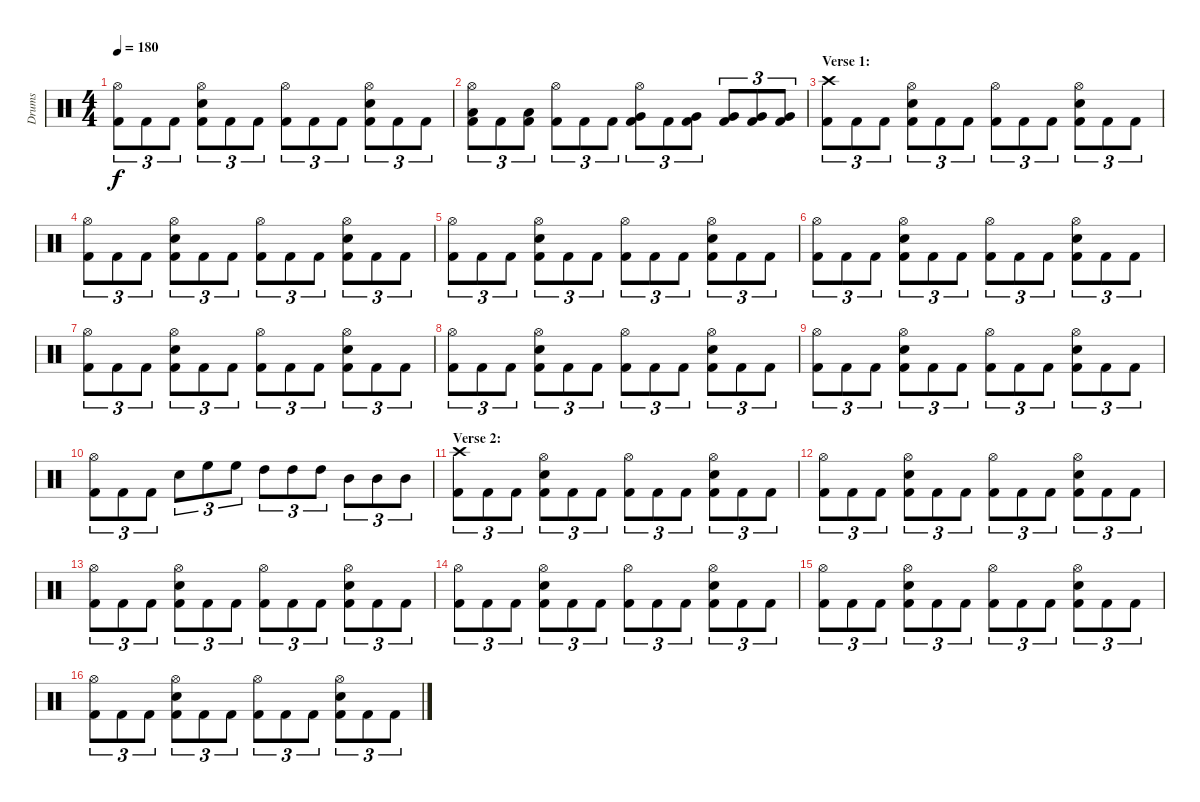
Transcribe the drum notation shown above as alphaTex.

\track ("Drums" "Drums") {instrument percussion}
\staff {score}
\articulation defaults
\ts (4 4)
\tempo 180
\clef neutral
\ks c
("Hi-Hat (open)" "Kick (hit) 2").8{tu (3 2) dy f} "Kick (hit) 2".8{tu (3 2)} "Kick (hit) 2".8{tu (3 2)} ("Hi-Hat (open)" "Electric Snare (hit)" "Kick (hit) 2").8{tu (3 2)} "Kick (hit) 2".8{tu (3 2)} "Kick (hit) 2".8{tu (3 2)} ("Hi-Hat (open)" "Kick (hit) 2").8{tu (3 2)} "Kick (hit) 2".8{tu (3 2)} "Kick (hit) 2".8{tu (3 2)} ("Hi-Hat (open)" "Electric Snare (hit)" "Kick (hit) 2").8{tu (3 2)} "Kick (hit) 2".8{tu (3 2)} "Kick (hit) 2".8{tu (3 2)} |
("Hi-Hat (open)" "Low Tom (hit)" "Kick (hit) 2").8{tu (3 2)} "Kick (hit) 2".8{tu (3 2)} ("Low Tom (hit)" "Kick (hit) 2").8{tu (3 2)} ("Hi-Hat (open)" "Kick (hit) 2").8{tu (3 2)} "Kick (hit) 2".8{tu (3 2)} "Kick (hit) 2".8{tu (3 2)} ("Hi-Hat (open)" "Very Low Tom (hit)" "Kick (hit) 2").8{tu (3 2)} "Kick (hit) 2".8{tu (3 2)} ("Very Low Tom (hit)" "Kick (hit) 2").8{tu (3 2)} ("Very Low Tom (hit)" "Kick (hit) 2").8{tu (3 2)} ("Very Low Tom (hit)" "Kick (hit) 2").8{tu (3 2)} ("Very Low Tom (hit)" "Kick (hit) 2").8{tu (3 2)} |
\section ("" "Verse 1:")
("Crash high (hit)" "Kick (hit) 2").8{tu (3 2)} "Kick (hit) 2".8{tu (3 2)} "Kick (hit) 2".8{tu (3 2)} ("Hi-Hat (open)" "Electric Snare (hit)" "Kick (hit) 2").8{tu (3 2)} "Kick (hit) 2".8{tu (3 2)} "Kick (hit) 2".8{tu (3 2)} ("Hi-Hat (open)" "Kick (hit) 2").8{tu (3 2)} "Kick (hit) 2".8{tu (3 2)} "Kick (hit) 2".8{tu (3 2)} ("Hi-Hat (open)" "Electric Snare (hit)" "Kick (hit) 2").8{tu (3 2)} "Kick (hit) 2".8{tu (3 2)} "Kick (hit) 2".8{tu (3 2)} |
("Hi-Hat (open)" "Kick (hit) 2").8{tu (3 2)} "Kick (hit) 2".8{tu (3 2)} "Kick (hit) 2".8{tu (3 2)} ("Hi-Hat (open)" "Electric Snare (hit)" "Kick (hit) 2").8{tu (3 2)} "Kick (hit) 2".8{tu (3 2)} "Kick (hit) 2".8{tu (3 2)} ("Hi-Hat (open)" "Kick (hit) 2").8{tu (3 2)} "Kick (hit) 2".8{tu (3 2)} "Kick (hit) 2".8{tu (3 2)} ("Hi-Hat (open)" "Electric Snare (hit)" "Kick (hit) 2").8{tu (3 2)} "Kick (hit) 2".8{tu (3 2)} "Kick (hit) 2".8{tu (3 2)} |
("Hi-Hat (open)" "Kick (hit) 2").8{tu (3 2)} "Kick (hit) 2".8{tu (3 2)} "Kick (hit) 2".8{tu (3 2)} ("Hi-Hat (open)" "Electric Snare (hit)" "Kick (hit) 2").8{tu (3 2)} "Kick (hit) 2".8{tu (3 2)} "Kick (hit) 2".8{tu (3 2)} ("Hi-Hat (open)" "Kick (hit) 2").8{tu (3 2)} "Kick (hit) 2".8{tu (3 2)} "Kick (hit) 2".8{tu (3 2)} ("Hi-Hat (open)" "Electric Snare (hit)" "Kick (hit) 2").8{tu (3 2)} "Kick (hit) 2".8{tu (3 2)} "Kick (hit) 2".8{tu (3 2)} |
("Hi-Hat (open)" "Kick (hit) 2").8{tu (3 2)} "Kick (hit) 2".8{tu (3 2)} "Kick (hit) 2".8{tu (3 2)} ("Hi-Hat (open)" "Electric Snare (hit)" "Kick (hit) 2").8{tu (3 2)} "Kick (hit) 2".8{tu (3 2)} "Kick (hit) 2".8{tu (3 2)} ("Hi-Hat (open)" "Kick (hit) 2").8{tu (3 2)} "Kick (hit) 2".8{tu (3 2)} "Kick (hit) 2".8{tu (3 2)} ("Hi-Hat (open)" "Electric Snare (hit)" "Kick (hit) 2").8{tu (3 2)} "Kick (hit) 2".8{tu (3 2)} "Kick (hit) 2".8{tu (3 2)} |
("Hi-Hat (open)" "Kick (hit) 2").8{tu (3 2)} "Kick (hit) 2".8{tu (3 2)} "Kick (hit) 2".8{tu (3 2)} ("Hi-Hat (open)" "Electric Snare (hit)" "Kick (hit) 2").8{tu (3 2)} "Kick (hit) 2".8{tu (3 2)} "Kick (hit) 2".8{tu (3 2)} ("Hi-Hat (open)" "Kick (hit) 2").8{tu (3 2)} "Kick (hit) 2".8{tu (3 2)} "Kick (hit) 2".8{tu (3 2)} ("Hi-Hat (open)" "Electric Snare (hit)" "Kick (hit) 2").8{tu (3 2)} "Kick (hit) 2".8{tu (3 2)} "Kick (hit) 2".8{tu (3 2)} |
("Hi-Hat (open)" "Kick (hit) 2").8{tu (3 2)} "Kick (hit) 2".8{tu (3 2)} "Kick (hit) 2".8{tu (3 2)} ("Hi-Hat (open)" "Electric Snare (hit)" "Kick (hit) 2").8{tu (3 2)} "Kick (hit) 2".8{tu (3 2)} "Kick (hit) 2".8{tu (3 2)} ("Hi-Hat (open)" "Kick (hit) 2").8{tu (3 2)} "Kick (hit) 2".8{tu (3 2)} "Kick (hit) 2".8{tu (3 2)} ("Hi-Hat (open)" "Electric Snare (hit)" "Kick (hit) 2").8{tu (3 2)} "Kick (hit) 2".8{tu (3 2)} "Kick (hit) 2".8{tu (3 2)} |
("Hi-Hat (open)" "Kick (hit) 2").8{tu (3 2)} "Kick (hit) 2".8{tu (3 2)} "Kick (hit) 2".8{tu (3 2)} ("Hi-Hat (open)" "Electric Snare (hit)" "Kick (hit) 2").8{tu (3 2)} "Kick (hit) 2".8{tu (3 2)} "Kick (hit) 2".8{tu (3 2)} ("Hi-Hat (open)" "Kick (hit) 2").8{tu (3 2)} "Kick (hit) 2".8{tu (3 2)} "Kick (hit) 2".8{tu (3 2)} ("Hi-Hat (open)" "Electric Snare (hit)" "Kick (hit) 2").8{tu (3 2)} "Kick (hit) 2".8{tu (3 2)} "Kick (hit) 2".8{tu (3 2)} |
("Hi-Hat (open)" "Kick (hit) 2").8{tu (3 2)} "Kick (hit) 2".8{tu (3 2)} "Kick (hit) 2".8{tu (3 2)} "Electric Snare (hit)".8{tu (3 2)} "High Floor Tom (hit)".8{tu (3 2)} "High Floor Tom (hit)".8{tu (3 2)} "High Tom (hit)".8{tu (3 2)} "High Tom (hit)".8{tu (3 2)} "High Tom (hit)".8{tu (3 2)} "Mid Tom (hit)".8{tu (3 2)} "Mid Tom (hit)".8{tu (3 2)} "Mid Tom (hit)".8{tu (3 2)} |
\section ("" "Verse 2:")
("Crash high (hit)" "Kick (hit) 2").8{tu (3 2)} "Kick (hit) 2".8{tu (3 2)} "Kick (hit) 2".8{tu (3 2)} ("Hi-Hat (open)" "Electric Snare (hit)" "Kick (hit) 2").8{tu (3 2)} "Kick (hit) 2".8{tu (3 2)} "Kick (hit) 2".8{tu (3 2)} ("Hi-Hat (open)" "Kick (hit) 2").8{tu (3 2)} "Kick (hit) 2".8{tu (3 2)} "Kick (hit) 2".8{tu (3 2)} ("Hi-Hat (open)" "Electric Snare (hit)" "Kick (hit) 2").8{tu (3 2)} "Kick (hit) 2".8{tu (3 2)} "Kick (hit) 2".8{tu (3 2)} |
("Hi-Hat (open)" "Kick (hit) 2").8{tu (3 2)} "Kick (hit) 2".8{tu (3 2)} "Kick (hit) 2".8{tu (3 2)} ("Hi-Hat (open)" "Electric Snare (hit)" "Kick (hit) 2").8{tu (3 2)} "Kick (hit) 2".8{tu (3 2)} "Kick (hit) 2".8{tu (3 2)} ("Hi-Hat (open)" "Kick (hit) 2").8{tu (3 2)} "Kick (hit) 2".8{tu (3 2)} "Kick (hit) 2".8{tu (3 2)} ("Hi-Hat (open)" "Electric Snare (hit)" "Kick (hit) 2").8{tu (3 2)} "Kick (hit) 2".8{tu (3 2)} "Kick (hit) 2".8{tu (3 2)} |
("Hi-Hat (open)" "Kick (hit) 2").8{tu (3 2)} "Kick (hit) 2".8{tu (3 2)} "Kick (hit) 2".8{tu (3 2)} ("Hi-Hat (open)" "Electric Snare (hit)" "Kick (hit) 2").8{tu (3 2)} "Kick (hit) 2".8{tu (3 2)} "Kick (hit) 2".8{tu (3 2)} ("Hi-Hat (open)" "Kick (hit) 2").8{tu (3 2)} "Kick (hit) 2".8{tu (3 2)} "Kick (hit) 2".8{tu (3 2)} ("Hi-Hat (open)" "Electric Snare (hit)" "Kick (hit) 2").8{tu (3 2)} "Kick (hit) 2".8{tu (3 2)} "Kick (hit) 2".8{tu (3 2)} |
("Hi-Hat (open)" "Kick (hit) 2").8{tu (3 2)} "Kick (hit) 2".8{tu (3 2)} "Kick (hit) 2".8{tu (3 2)} ("Hi-Hat (open)" "Electric Snare (hit)" "Kick (hit) 2").8{tu (3 2)} "Kick (hit) 2".8{tu (3 2)} "Kick (hit) 2".8{tu (3 2)} ("Hi-Hat (open)" "Kick (hit) 2").8{tu (3 2)} "Kick (hit) 2".8{tu (3 2)} "Kick (hit) 2".8{tu (3 2)} ("Hi-Hat (open)" "Electric Snare (hit)" "Kick (hit) 2").8{tu (3 2)} "Kick (hit) 2".8{tu (3 2)} "Kick (hit) 2".8{tu (3 2)} |
("Hi-Hat (open)" "Kick (hit) 2").8{tu (3 2)} "Kick (hit) 2".8{tu (3 2)} "Kick (hit) 2".8{tu (3 2)} ("Hi-Hat (open)" "Electric Snare (hit)" "Kick (hit) 2").8{tu (3 2)} "Kick (hit) 2".8{tu (3 2)} "Kick (hit) 2".8{tu (3 2)} ("Hi-Hat (open)" "Kick (hit) 2").8{tu (3 2)} "Kick (hit) 2".8{tu (3 2)} "Kick (hit) 2".8{tu (3 2)} ("Hi-Hat (open)" "Electric Snare (hit)" "Kick (hit) 2").8{tu (3 2)} "Kick (hit) 2".8{tu (3 2)} "Kick (hit) 2".8{tu (3 2)} |
("Hi-Hat (open)" "Kick (hit) 2").8{tu (3 2)} "Kick (hit) 2".8{tu (3 2)} "Kick (hit) 2".8{tu (3 2)} ("Hi-Hat (open)" "Electric Snare (hit)" "Kick (hit) 2").8{tu (3 2)} "Kick (hit) 2".8{tu (3 2)} "Kick (hit) 2".8{tu (3 2)} ("Hi-Hat (open)" "Kick (hit) 2").8{tu (3 2)} "Kick (hit) 2".8{tu (3 2)} "Kick (hit) 2".8{tu (3 2)} ("Hi-Hat (open)" "Electric Snare (hit)" "Kick (hit) 2").8{tu (3 2)} "Kick (hit) 2".8{tu (3 2)} "Kick (hit) 2".8{tu (3 2)}
